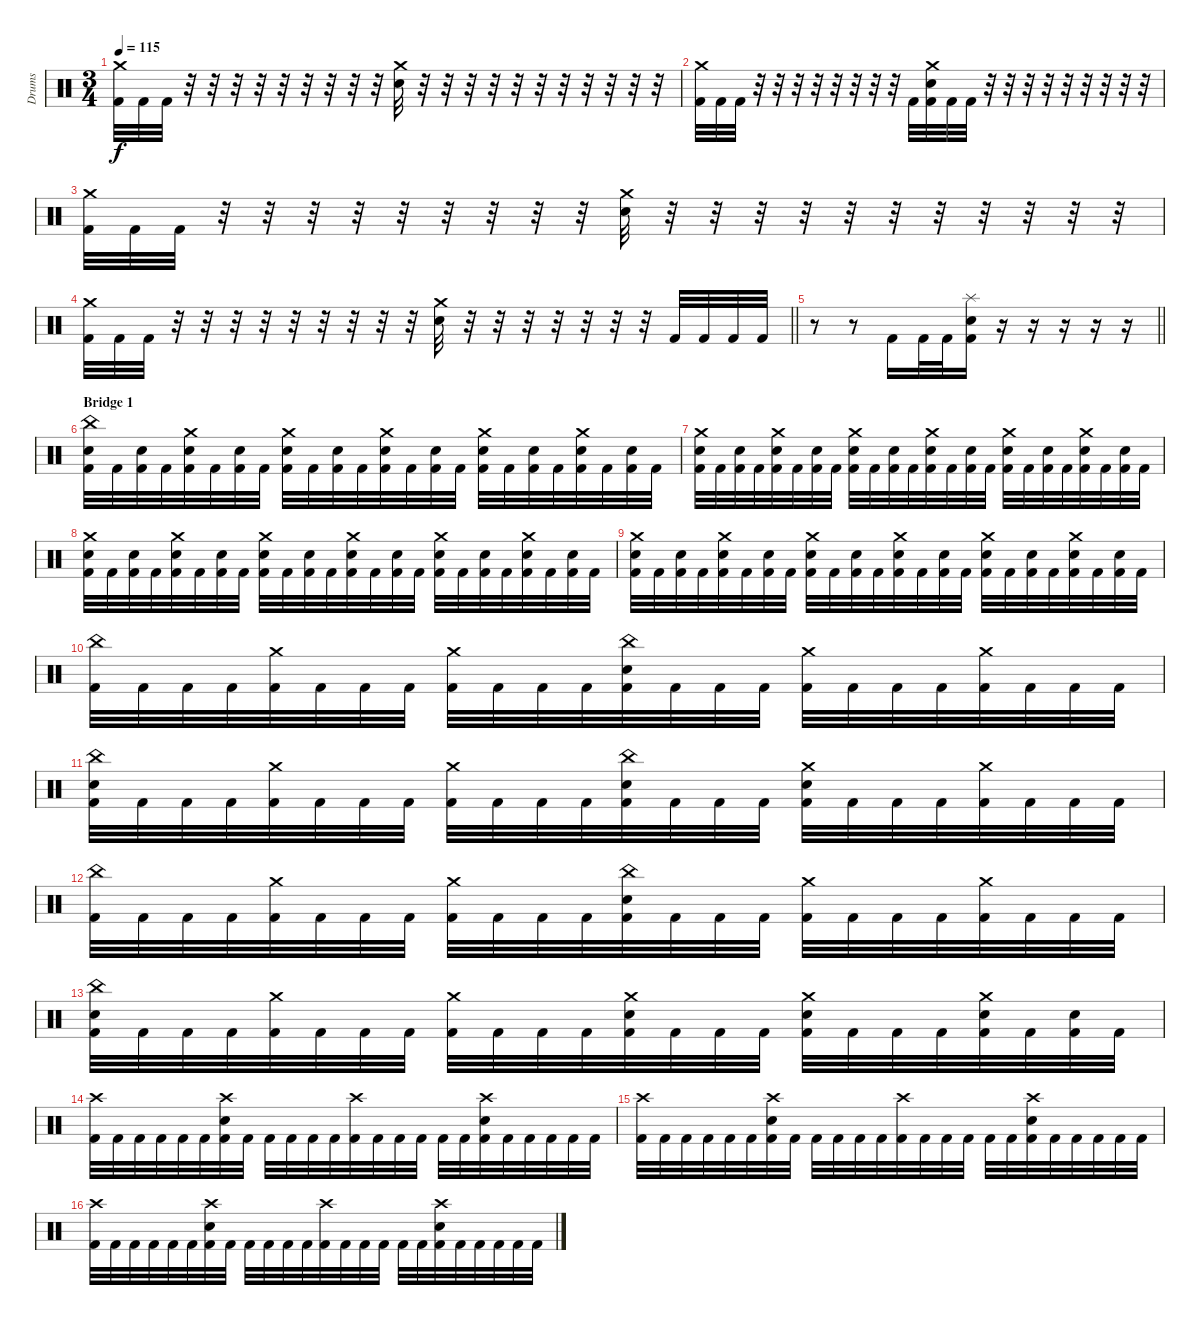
\track ("Drums" "Drums") {instrument percussion}
\staff {score}
\articulation defaults
\ts (3 4)
\tempo 115
\clef neutral
\ks c
("Crash medium (hit)" "Kick (hit) 2").32{dy f} "Kick (hit) 2".32 "Kick (hit) 2".32 r.32 r.32 r.32 r.32 r.32 r.32 r.32 r.32 r.32 ("Crash medium (hit)" "Electric Snare (hit)").32 r.32 r.32 r.32 r.32 r.32 r.32 r.32 r.32 r.32 r.32 r.32 |
("Crash medium (hit)" "Kick (hit) 2").32 "Kick (hit) 2".32 "Kick (hit) 2".32 r.32 r.32 r.32 r.32 r.32 r.32 r.32 r.32 "Kick (hit) 2".32 ("Crash medium (hit)" "Electric Snare (hit)" "Kick (hit) 2").32 "Kick (hit) 2".32 "Kick (hit) 2".32 r.32 r.32 r.32 r.32 r.32 r.32 r.32 r.32 r.32 |
("Crash medium (hit)" "Kick (hit) 2").32 "Kick (hit) 2".32 "Kick (hit) 2".32 r.32 r.32 r.32 r.32 r.32 r.32 r.32 r.32 r.32 ("Crash medium (hit)" "Electric Snare (hit)").32 r.32 r.32 r.32 r.32 r.32 r.32 r.32 r.32 r.32 r.32 r.32 |
\barLineRight lightlight
("Crash medium (hit)" "Kick (hit) 2").32 "Kick (hit) 2".32 "Kick (hit) 2".32 r.32 r.32 r.32 r.32 r.32 r.32 r.32 r.32 r.32 ("Crash medium (hit)" "Electric Snare (hit)").32 r.32 r.32 r.32 r.32 r.32 r.32 r.32 "Kick (hit) 2".32 "Kick (hit) 2".32 "Kick (hit) 2".32 "Kick (hit) 2".32 |
\barLineRight lightlight
r.8 r.8 "Kick (hit) 2".16 "Kick (hit) 2".32 "Kick (hit) 2".32 ("Electric Snare (hit)" "Kick (hit) 2" "Splash (hit)").16 r.16 r.16 r.16 r.16 r.16 |
\section ("" "Bridge 1")
("Kick (hit) 2" "China (hit)" "Electric Snare (hit)").32 "Kick (hit) 2".32 ("Kick (hit) 2" "Electric Snare (hit)").32 "Kick (hit) 2".32 ("Kick (hit) 2" "Crash medium (hit)" "Electric Snare (hit)").32 "Kick (hit) 2".32 ("Kick (hit) 2" "Electric Snare (hit)").32 "Kick (hit) 2".32 ("Kick (hit) 2" "Crash medium (hit)" "Electric Snare (hit)").32 "Kick (hit) 2".32 ("Kick (hit) 2" "Electric Snare (hit)").32 "Kick (hit) 2".32 ("Kick (hit) 2" "Crash medium (hit)" "Electric Snare (hit)").32 "Kick (hit) 2".32 ("Kick (hit) 2" "Electric Snare (hit)").32 "Kick (hit) 2".32 ("Kick (hit) 2" "Crash medium (hit)" "Electric Snare (hit)").32 "Kick (hit) 2".32 ("Kick (hit) 2" "Electric Snare (hit)").32 "Kick (hit) 2".32 ("Kick (hit) 2" "Crash medium (hit)" "Electric Snare (hit)").32 "Kick (hit) 2".32 ("Kick (hit) 2" "Electric Snare (hit)").32 "Kick (hit) 2".32 |
("Kick (hit) 2" "Crash medium (hit)" "Electric Snare (hit)").32 "Kick (hit) 2".32 ("Kick (hit) 2" "Electric Snare (hit)").32 "Kick (hit) 2".32 ("Kick (hit) 2" "Crash medium (hit)" "Electric Snare (hit)").32 "Kick (hit) 2".32 ("Kick (hit) 2" "Electric Snare (hit)").32 "Kick (hit) 2".32 ("Kick (hit) 2" "Crash medium (hit)" "Electric Snare (hit)").32 "Kick (hit) 2".32 ("Kick (hit) 2" "Electric Snare (hit)").32 "Kick (hit) 2".32 ("Kick (hit) 2" "Crash medium (hit)" "Electric Snare (hit)").32 "Kick (hit) 2".32 ("Kick (hit) 2" "Electric Snare (hit)").32 "Kick (hit) 2".32 ("Kick (hit) 2" "Crash medium (hit)" "Electric Snare (hit)").32 "Kick (hit) 2".32 ("Kick (hit) 2" "Electric Snare (hit)").32 "Kick (hit) 2".32 ("Kick (hit) 2" "Crash medium (hit)" "Electric Snare (hit)").32 "Kick (hit) 2".32 ("Kick (hit) 2" "Electric Snare (hit)").32 "Kick (hit) 2".32 |
("Kick (hit) 2" "Crash medium (hit)" "Electric Snare (hit)").32 "Kick (hit) 2".32 ("Kick (hit) 2" "Electric Snare (hit)").32 "Kick (hit) 2".32 ("Kick (hit) 2" "Crash medium (hit)" "Electric Snare (hit)").32 "Kick (hit) 2".32 ("Kick (hit) 2" "Electric Snare (hit)").32 "Kick (hit) 2".32 ("Kick (hit) 2" "Crash medium (hit)" "Electric Snare (hit)").32 "Kick (hit) 2".32 ("Kick (hit) 2" "Electric Snare (hit)").32 "Kick (hit) 2".32 ("Kick (hit) 2" "Crash medium (hit)" "Electric Snare (hit)").32 "Kick (hit) 2".32 ("Kick (hit) 2" "Electric Snare (hit)").32 "Kick (hit) 2".32 ("Kick (hit) 2" "Crash medium (hit)" "Electric Snare (hit)").32 "Kick (hit) 2".32 ("Kick (hit) 2" "Electric Snare (hit)").32 "Kick (hit) 2".32 ("Kick (hit) 2" "Crash medium (hit)" "Electric Snare (hit)").32 "Kick (hit) 2".32 ("Kick (hit) 2" "Electric Snare (hit)").32 "Kick (hit) 2".32 |
("Kick (hit) 2" "Crash medium (hit)" "Electric Snare (hit)").32 "Kick (hit) 2".32 ("Kick (hit) 2" "Electric Snare (hit)").32 "Kick (hit) 2".32 ("Kick (hit) 2" "Crash medium (hit)" "Electric Snare (hit)").32 "Kick (hit) 2".32 ("Kick (hit) 2" "Electric Snare (hit)").32 "Kick (hit) 2".32 ("Kick (hit) 2" "Crash medium (hit)" "Electric Snare (hit)").32 "Kick (hit) 2".32 ("Kick (hit) 2" "Electric Snare (hit)").32 "Kick (hit) 2".32 ("Kick (hit) 2" "Crash medium (hit)" "Electric Snare (hit)").32 "Kick (hit) 2".32 ("Kick (hit) 2" "Electric Snare (hit)").32 "Kick (hit) 2".32 ("Kick (hit) 2" "Crash medium (hit)" "Electric Snare (hit)").32 "Kick (hit) 2".32 ("Kick (hit) 2" "Electric Snare (hit)").32 "Kick (hit) 2".32 ("Kick (hit) 2" "Crash medium (hit)" "Electric Snare (hit)").32 "Kick (hit) 2".32 ("Kick (hit) 2" "Electric Snare (hit)").32 "Kick (hit) 2".32 |
("Kick (hit) 2" "China (hit)").32 "Kick (hit) 2".32 "Kick (hit) 2".32 "Kick (hit) 2".32 ("Kick (hit) 2" "Crash medium (hit)").32 "Kick (hit) 2".32 "Kick (hit) 2".32 "Kick (hit) 2".32 ("Kick (hit) 2" "Crash medium (hit)").32 "Kick (hit) 2".32 "Kick (hit) 2".32 "Kick (hit) 2".32 ("Kick (hit) 2" "China (hit)" "Electric Snare (hit)").32 "Kick (hit) 2".32 "Kick (hit) 2".32 "Kick (hit) 2".32 ("Kick (hit) 2" "Crash medium (hit)").32 "Kick (hit) 2".32 "Kick (hit) 2".32 "Kick (hit) 2".32 ("Kick (hit) 2" "Crash medium (hit)").32 "Kick (hit) 2".32 "Kick (hit) 2".32 "Kick (hit) 2".32 |
("Kick (hit) 2" "China (hit)" "Electric Snare (hit)").32 "Kick (hit) 2".32 "Kick (hit) 2".32 "Kick (hit) 2".32 ("Kick (hit) 2" "Crash medium (hit)").32 "Kick (hit) 2".32 "Kick (hit) 2".32 "Kick (hit) 2".32 ("Kick (hit) 2" "Crash medium (hit)").32 "Kick (hit) 2".32 "Kick (hit) 2".32 "Kick (hit) 2".32 ("Kick (hit) 2" "China (hit)" "Electric Snare (hit)").32 "Kick (hit) 2".32 "Kick (hit) 2".32 "Kick (hit) 2".32 ("Kick (hit) 2" "Crash medium (hit)" "Electric Snare (hit)").32 "Kick (hit) 2".32 "Kick (hit) 2".32 "Kick (hit) 2".32 ("Kick (hit) 2" "Crash medium (hit)").32 "Kick (hit) 2".32 "Kick (hit) 2".32 "Kick (hit) 2".32 |
("Kick (hit) 2" "China (hit)").32 "Kick (hit) 2".32 "Kick (hit) 2".32 "Kick (hit) 2".32 ("Kick (hit) 2" "Crash medium (hit)").32 "Kick (hit) 2".32 "Kick (hit) 2".32 "Kick (hit) 2".32 ("Kick (hit) 2" "Crash medium (hit)").32 "Kick (hit) 2".32 "Kick (hit) 2".32 "Kick (hit) 2".32 ("Kick (hit) 2" "China (hit)" "Electric Snare (hit)").32 "Kick (hit) 2".32 "Kick (hit) 2".32 "Kick (hit) 2".32 ("Kick (hit) 2" "Crash medium (hit)").32 "Kick (hit) 2".32 "Kick (hit) 2".32 "Kick (hit) 2".32 ("Kick (hit) 2" "Crash medium (hit)").32 "Kick (hit) 2".32 "Kick (hit) 2".32 "Kick (hit) 2".32 |
("Kick (hit) 2" "China (hit)" "Electric Snare (hit)").32 "Kick (hit) 2".32 "Kick (hit) 2".32 "Kick (hit) 2".32 ("Kick (hit) 2" "Crash medium (hit)").32 "Kick (hit) 2".32 "Kick (hit) 2".32 "Kick (hit) 2".32 ("Kick (hit) 2" "Crash medium (hit)").32 "Kick (hit) 2".32 "Kick (hit) 2".32 "Kick (hit) 2".32 ("Kick (hit) 2" "Crash medium (hit)" "Electric Snare (hit)").32 "Kick (hit) 2".32 "Kick (hit) 2".32 "Kick (hit) 2".32 ("Kick (hit) 2" "Crash medium (hit)" "Electric Snare (hit)").32 "Kick (hit) 2".32 "Kick (hit) 2".32 "Kick (hit) 2".32 ("Kick (hit) 2" "Crash medium (hit)" "Electric Snare (hit)").32 "Kick (hit) 2".32 ("Kick (hit) 2" "Electric Snare (hit)").32 "Kick (hit) 2".32 |
("Kick (hit) 2" "Crash high (hit)").32 "Kick (hit) 2".32 "Kick (hit) 2".32 "Kick (hit) 2".32 "Kick (hit) 2".32 "Kick (hit) 2".32 ("Kick (hit) 2" "Crash high (hit)" "Electric Snare (hit)").32 "Kick (hit) 2".32 "Kick (hit) 2".32 "Kick (hit) 2".32 "Kick (hit) 2".32 "Kick (hit) 2".32 ("Kick (hit) 2" "Crash high (hit)").32 "Kick (hit) 2".32 "Kick (hit) 2".32 "Kick (hit) 2".32 "Kick (hit) 2".32 "Kick (hit) 2".32 ("Kick (hit) 2" "Electric Snare (hit)" "Crash high (hit)").32 "Kick (hit) 2".32 "Kick (hit) 2".32 "Kick (hit) 2".32 "Kick (hit) 2".32 "Kick (hit) 2".32 |
("Kick (hit) 2" "Crash high (hit)").32 "Kick (hit) 2".32 "Kick (hit) 2".32 "Kick (hit) 2".32 "Kick (hit) 2".32 "Kick (hit) 2".32 ("Kick (hit) 2" "Crash high (hit)" "Electric Snare (hit)").32 "Kick (hit) 2".32 "Kick (hit) 2".32 "Kick (hit) 2".32 "Kick (hit) 2".32 "Kick (hit) 2".32 ("Kick (hit) 2" "Crash high (hit)").32 "Kick (hit) 2".32 "Kick (hit) 2".32 "Kick (hit) 2".32 "Kick (hit) 2".32 "Kick (hit) 2".32 ("Kick (hit) 2" "Electric Snare (hit)" "Crash high (hit)").32 "Kick (hit) 2".32 "Kick (hit) 2".32 "Kick (hit) 2".32 "Kick (hit) 2".32 "Kick (hit) 2".32 |
("Kick (hit) 2" "Crash high (hit)").32 "Kick (hit) 2".32 "Kick (hit) 2".32 "Kick (hit) 2".32 "Kick (hit) 2".32 "Kick (hit) 2".32 ("Kick (hit) 2" "Crash high (hit)" "Electric Snare (hit)").32 "Kick (hit) 2".32 "Kick (hit) 2".32 "Kick (hit) 2".32 "Kick (hit) 2".32 "Kick (hit) 2".32 ("Kick (hit) 2" "Crash high (hit)").32 "Kick (hit) 2".32 "Kick (hit) 2".32 "Kick (hit) 2".32 "Kick (hit) 2".32 "Kick (hit) 2".32 ("Kick (hit) 2" "Electric Snare (hit)" "Crash high (hit)").32 "Kick (hit) 2".32 "Kick (hit) 2".32 "Kick (hit) 2".32 "Kick (hit) 2".32 "Kick (hit) 2".32
